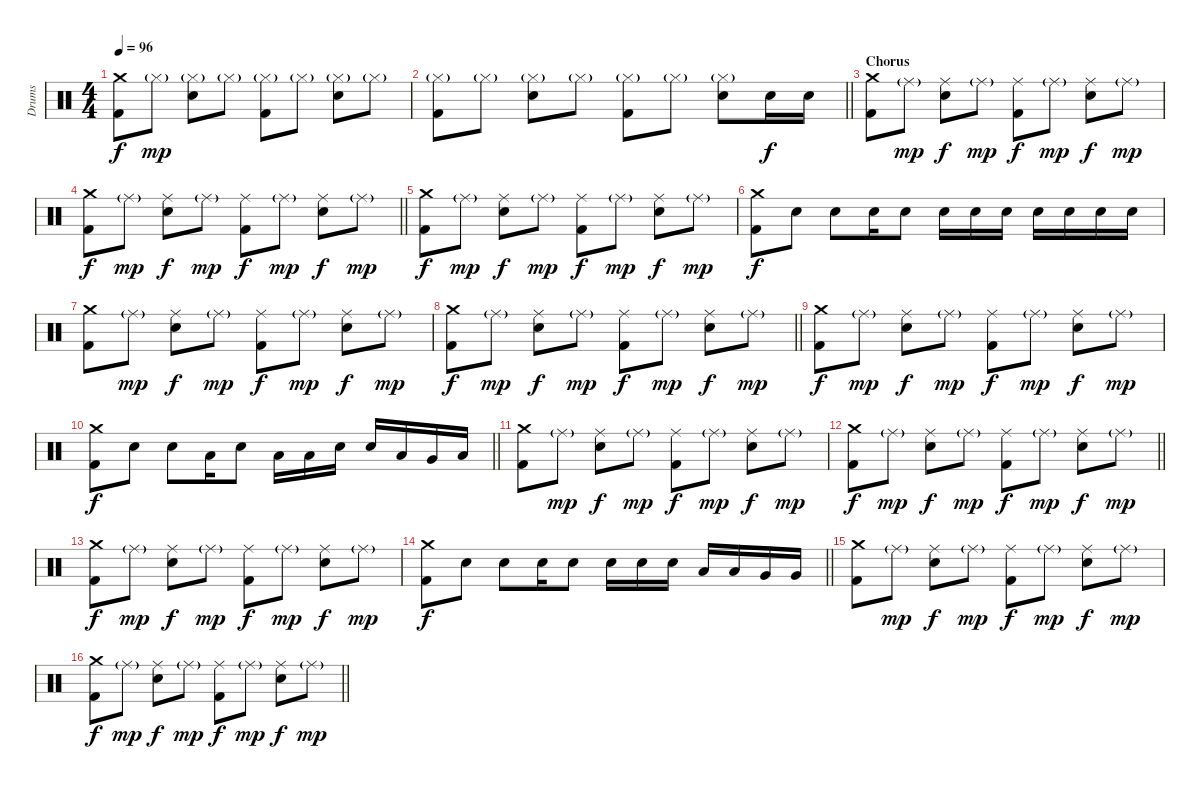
\track ("Drums" "Drums") {instrument percussion}
\staff {score}
\articulation defaults
\ts (4 4)
\tempo 96
\clef neutral
\ks c
("Crash medium (hit)" "Kick (hit) 2").8{dy f} "Hi-Hat (closed)"{g}.8{dy mp} ("Hi-Hat (closed)"{g} "Snare (hit) 2").8 "Hi-Hat (closed)"{g}.8 ("Hi-Hat (closed)"{g} "Kick (hit) 2").8 "Hi-Hat (closed)"{g}.8 ("Hi-Hat (closed)"{g} "Snare (hit) 2").8 "Hi-Hat (closed)"{g}.8 |
\barLineRight lightlight
("Hi-Hat (closed)"{g} "Kick (hit) 2").8 "Hi-Hat (closed)"{g}.8 ("Hi-Hat (closed)"{g} "Snare (hit) 2").8 "Hi-Hat (closed)"{g}.8 ("Hi-Hat (closed)"{g} "Kick (hit) 2").8 "Hi-Hat (closed)"{g}.8 ("Hi-Hat (closed)"{g} "Snare (hit) 2").8 "Snare (hit) 2".16{dy f} "Snare (hit) 2".16 |
\section ("" "Chorus")
("Crash medium (hit)" "Kick (hit) 2").8 "Ride (middle)"{g}.8{dy mp} ("Ride (middle)" "Snare (hit) 2").8{dy f} "Ride (middle)"{g}.8{dy mp} ("Ride (middle)" "Kick (hit) 2").8{dy f} "Ride (middle)"{g}.8{dy mp} ("Ride (middle)" "Snare (hit) 2").8{dy f} "Ride (middle)"{g}.8{dy mp} |
\barLineRight lightlight
("Crash medium (hit)" "Kick (hit) 2").8{dy f} "Ride (middle)"{g}.8{dy mp} ("Ride (middle)" "Snare (hit) 2").8{dy f} "Ride (middle)"{g}.8{dy mp} ("Ride (middle)" "Kick (hit) 2").8{dy f} "Ride (middle)"{g}.8{dy mp} ("Ride (middle)" "Snare (hit) 2").8{dy f} "Ride (middle)"{g}.8{dy mp} |
("Crash medium (hit)" "Kick (hit) 2").8{dy f} "Ride (middle)"{g}.8{dy mp} ("Ride (middle)" "Snare (hit) 2").8{dy f} "Ride (middle)"{g}.8{dy mp} ("Ride (middle)" "Kick (hit) 2").8{dy f} "Ride (middle)"{g}.8{dy mp} ("Ride (middle)" "Snare (hit) 2").8{dy f} "Ride (middle)"{g}.8{dy mp} |
("Crash medium (hit)" "Kick (hit) 2").8{dy f} "Snare (hit) 2".8 "Snare (hit) 2".8 "Snare (hit) 2".16 "Snare (hit) 2".8 "Snare (hit) 2".16 "Snare (hit) 2".16 "Snare (hit) 2".16 "Snare (hit) 2".16 "Snare (hit) 2".16 "Snare (hit) 2".16 "Snare (hit) 2".16 |
("Crash medium (hit)" "Kick (hit) 2").8 "Ride (middle)"{g}.8{dy mp} ("Ride (middle)" "Snare (hit) 2").8{dy f} "Ride (middle)"{g}.8{dy mp} ("Ride (middle)" "Kick (hit) 2").8{dy f} "Ride (middle)"{g}.8{dy mp} ("Ride (middle)" "Snare (hit) 2").8{dy f} "Ride (middle)"{g}.8{dy mp} |
\barLineRight lightlight
("Crash medium (hit)" "Kick (hit) 2").8{dy f} "Ride (middle)"{g}.8{dy mp} ("Ride (middle)" "Snare (hit) 2").8{dy f} "Ride (middle)"{g}.8{dy mp} ("Ride (middle)" "Kick (hit) 2").8{dy f} "Ride (middle)"{g}.8{dy mp} ("Ride (middle)" "Snare (hit) 2").8{dy f} "Ride (middle)"{g}.8{dy mp} |
("Crash medium (hit)" "Kick (hit) 2").8{dy f} "Ride (middle)"{g}.8{dy mp} ("Ride (middle)" "Snare (hit) 2").8{dy f} "Ride (middle)"{g}.8{dy mp} ("Ride (middle)" "Kick (hit) 2").8{dy f} "Ride (middle)"{g}.8{dy mp} ("Ride (middle)" "Snare (hit) 2").8{dy f} "Ride (middle)"{g}.8{dy mp} |
\barLineRight lightlight
("Crash medium (hit)" "Kick (hit) 2").8{dy f} "Snare (hit) 2".8 "Snare (hit) 2".8 "Low Tom (hit)".16 "Snare (hit) 2".8 "Low Tom (hit)".16 "Low Tom (hit)".16 "Snare (hit) 2".16 "Snare (hit) 2".16 "Low Tom (hit)".16 "Very Low Tom (hit)".16 "Low Floor Tom (hit)".16 |
("Crash medium (hit)" "Kick (hit) 2").8 "Ride (middle)"{g}.8{dy mp} ("Ride (middle)" "Snare (hit) 2").8{dy f} "Ride (middle)"{g}.8{dy mp} ("Ride (middle)" "Kick (hit) 2").8{dy f} "Ride (middle)"{g}.8{dy mp} ("Ride (middle)" "Snare (hit) 2").8{dy f} "Ride (middle)"{g}.8{dy mp} |
\barLineRight lightlight
("Crash medium (hit)" "Kick (hit) 2").8{dy f} "Ride (middle)"{g}.8{dy mp} ("Ride (middle)" "Snare (hit) 2").8{dy f} "Ride (middle)"{g}.8{dy mp} ("Ride (middle)" "Kick (hit) 2").8{dy f} "Ride (middle)"{g}.8{dy mp} ("Ride (middle)" "Snare (hit) 2").8{dy f} "Ride (middle)"{g}.8{dy mp} |
("Crash medium (hit)" "Kick (hit) 2").8{dy f} "Ride (middle)"{g}.8{dy mp} ("Ride (middle)" "Snare (hit) 2").8{dy f} "Ride (middle)"{g}.8{dy mp} ("Ride (middle)" "Kick (hit) 2").8{dy f} "Ride (middle)"{g}.8{dy mp} ("Ride (middle)" "Snare (hit) 2").8{dy f} "Ride (middle)"{g}.8{dy mp} |
\barLineRight lightlight
("Crash medium (hit)" "Kick (hit) 2").8{dy f} "Snare (hit) 2".8 "Snare (hit) 2".8 "Snare (hit) 2".16 "Snare (hit) 2".8 "Snare (hit) 2".16 "Snare (hit) 2".16 "Snare (hit) 2".16 "Low Tom (hit)".16 "Low Tom (hit)".16 "Very Low Tom (hit)".16 "Very Low Tom (hit)".16 |
("Crash medium (hit)" "Kick (hit) 2").8 "Ride (middle)"{g}.8{dy mp} ("Ride (middle)" "Snare (hit) 2").8{dy f} "Ride (middle)"{g}.8{dy mp} ("Ride (middle)" "Kick (hit) 2").8{dy f} "Ride (middle)"{g}.8{dy mp} ("Ride (middle)" "Snare (hit) 2").8{dy f} "Ride (middle)"{g}.8{dy mp} |
\barLineRight lightlight
("Crash medium (hit)" "Kick (hit) 2").8{dy f} "Ride (middle)"{g}.8{dy mp} ("Ride (middle)" "Snare (hit) 2").8{dy f} "Ride (middle)"{g}.8{dy mp} ("Ride (middle)" "Kick (hit) 2").8{dy f} "Ride (middle)"{g}.8{dy mp} ("Ride (middle)" "Snare (hit) 2").8{dy f} "Ride (middle)"{g}.8{dy mp}
